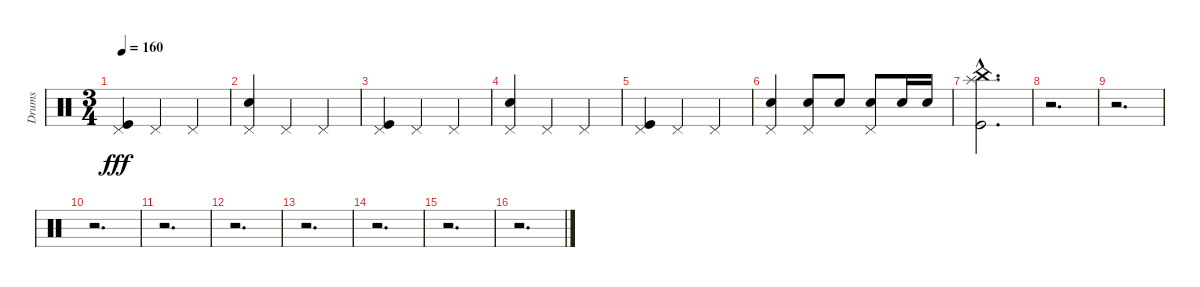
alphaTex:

\track ("Drums" "Drums") {instrument percussion}
\staff {score}
\articulation defaults
\ts (3 4)
\tempo 160
\clef neutral
\ks c
("Kick (hit)" "Pedal Hi-Hat (hit)").4{dy fff} "Pedal Hi-Hat (hit)".4 "Pedal Hi-Hat (hit)".4 |
("Electric Snare (hit)" "Pedal Hi-Hat (hit)").4 "Pedal Hi-Hat (hit)".4 "Pedal Hi-Hat (hit)".4 |
("Kick (hit)" "Pedal Hi-Hat (hit)").4 "Pedal Hi-Hat (hit)".4 "Pedal Hi-Hat (hit)".4 |
("Electric Snare (hit)" "Pedal Hi-Hat (hit)").4 "Pedal Hi-Hat (hit)".4 "Pedal Hi-Hat (hit)".4 |
("Kick (hit)" "Pedal Hi-Hat (hit)").4 "Pedal Hi-Hat (hit)".4 "Pedal Hi-Hat (hit)".4 |
("Electric Snare (hit)" "Pedal Hi-Hat (hit)").4 ("Electric Snare (hit)" "Pedal Hi-Hat (hit)").8 "Electric Snare (hit)".8 ("Electric Snare (hit)" "Pedal Hi-Hat (hit)").8 "Electric Snare (hit)".16 "Electric Snare (hit)".16 |
("Kick (hit)"{hac} "Splash (hit)"{hac} "China (hit)"{hac}).2{d} |
r.2{d} |
r.2{d} |
r.2{d} |
r.2{d} |
r.2{d} |
r.2{d} |
r.2{d} |
r.2{d} |
r.2{d}
